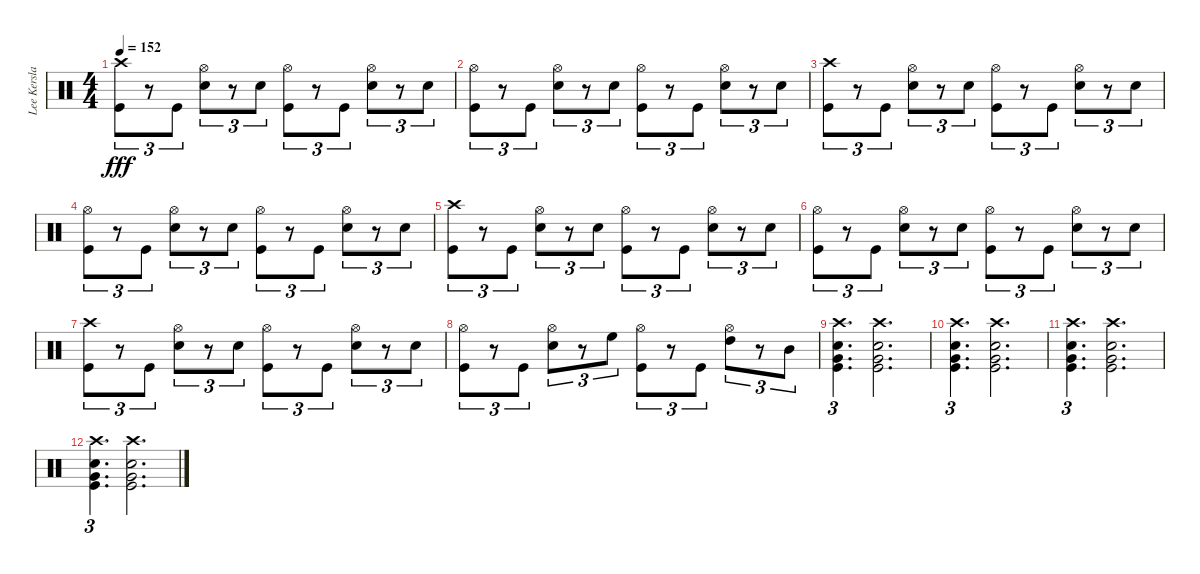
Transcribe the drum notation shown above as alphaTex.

\track ("Lee Kerslake" "Lee Kersla") {instrument percussion}
\staff {score}
\articulation defaults
\ts (4 4)
\tempo 152
\clef neutral
\ks c
("Crash high (hit)" "Kick (hit)").8{tu (3 2) dy fff} r.8{tu (3 2)} "Kick (hit)".8{tu (3 2)} ("Hi-Hat (open)" "Electric Snare (hit)").8{tu (3 2)} r.8{tu (3 2)} "Electric Snare (hit)".8{tu (3 2)} ("Hi-Hat (open)" "Kick (hit)").8{tu (3 2)} r.8{tu (3 2)} "Kick (hit)".8{tu (3 2)} ("Hi-Hat (open)" "Electric Snare (hit)").8{tu (3 2)} r.8{tu (3 2)} "Electric Snare (hit)".8{tu (3 2)} |
("Hi-Hat (open)" "Kick (hit)").8{tu (3 2)} r.8{tu (3 2)} "Kick (hit)".8{tu (3 2)} ("Hi-Hat (open)" "Electric Snare (hit)").8{tu (3 2)} r.8{tu (3 2)} "Electric Snare (hit)".8{tu (3 2)} ("Hi-Hat (open)" "Kick (hit)").8{tu (3 2)} r.8{tu (3 2)} "Kick (hit)".8{tu (3 2)} ("Hi-Hat (open)" "Electric Snare (hit)").8{tu (3 2)} r.8{tu (3 2)} "Electric Snare (hit)".8{tu (3 2)} |
("Crash high (hit)" "Kick (hit)").8{tu (3 2)} r.8{tu (3 2)} "Kick (hit)".8{tu (3 2)} ("Hi-Hat (open)" "Electric Snare (hit)").8{tu (3 2)} r.8{tu (3 2)} "Electric Snare (hit)".8{tu (3 2)} ("Hi-Hat (open)" "Kick (hit)").8{tu (3 2)} r.8{tu (3 2)} "Kick (hit)".8{tu (3 2)} ("Hi-Hat (open)" "Electric Snare (hit)").8{tu (3 2)} r.8{tu (3 2)} "Electric Snare (hit)".8{tu (3 2)} |
("Hi-Hat (open)" "Kick (hit)").8{tu (3 2)} r.8{tu (3 2)} "Kick (hit)".8{tu (3 2)} ("Hi-Hat (open)" "Electric Snare (hit)").8{tu (3 2)} r.8{tu (3 2)} "Electric Snare (hit)".8{tu (3 2)} ("Hi-Hat (open)" "Kick (hit)").8{tu (3 2)} r.8{tu (3 2)} "Kick (hit)".8{tu (3 2)} ("Hi-Hat (open)" "Electric Snare (hit)").8{tu (3 2)} r.8{tu (3 2)} "Electric Snare (hit)".8{tu (3 2)} |
("Crash high (hit)" "Kick (hit)").8{tu (3 2)} r.8{tu (3 2)} "Kick (hit)".8{tu (3 2)} ("Hi-Hat (open)" "Electric Snare (hit)").8{tu (3 2)} r.8{tu (3 2)} "Electric Snare (hit)".8{tu (3 2)} ("Hi-Hat (open)" "Kick (hit)").8{tu (3 2)} r.8{tu (3 2)} "Kick (hit)".8{tu (3 2)} ("Hi-Hat (open)" "Electric Snare (hit)").8{tu (3 2)} r.8{tu (3 2)} "Electric Snare (hit)".8{tu (3 2)} |
("Hi-Hat (open)" "Kick (hit)").8{tu (3 2)} r.8{tu (3 2)} "Kick (hit)".8{tu (3 2)} ("Hi-Hat (open)" "Electric Snare (hit)").8{tu (3 2)} r.8{tu (3 2)} "Electric Snare (hit)".8{tu (3 2)} ("Hi-Hat (open)" "Kick (hit)").8{tu (3 2)} r.8{tu (3 2)} "Kick (hit)".8{tu (3 2)} ("Hi-Hat (open)" "Electric Snare (hit)").8{tu (3 2)} r.8{tu (3 2)} "Electric Snare (hit)".8{tu (3 2)} |
("Crash high (hit)" "Kick (hit)").8{tu (3 2)} r.8{tu (3 2)} "Kick (hit)".8{tu (3 2)} ("Hi-Hat (open)" "Electric Snare (hit)").8{tu (3 2)} r.8{tu (3 2)} "Electric Snare (hit)".8{tu (3 2)} ("Hi-Hat (open)" "Kick (hit)").8{tu (3 2)} r.8{tu (3 2)} "Kick (hit)".8{tu (3 2)} ("Hi-Hat (open)" "Electric Snare (hit)").8{tu (3 2)} r.8{tu (3 2)} "Electric Snare (hit)".8{tu (3 2)} |
("Hi-Hat (open)" "Kick (hit)").8{tu (3 2)} r.8{tu (3 2)} "Kick (hit)".8{tu (3 2)} ("Hi-Hat (open)" "Electric Snare (hit)").8{tu (3 2)} r.8{tu (3 2)} "High Floor Tom (hit)".8{tu (3 2)} ("Hi-Hat (open)" "Kick (hit)").8{tu (3 2)} r.8{tu (3 2)} "Kick (hit)".8{tu (3 2)} ("Hi-Hat (open)" "High Tom (hit)").8{tu (3 2)} r.8{tu (3 2)} "Mid Tom (hit)".8{tu (3 2)} |
("Crash high (hit)" "Electric Snare (hit)" "Kick (hit)" "Very Low Tom (hit)").4{d tu (3 2)} ("Crash high (hit)" "Electric Snare (hit)" "Kick (hit)" "Very Low Tom (hit)").2{d} |
("Crash high (hit)" "Electric Snare (hit)" "Kick (hit)" "Very Low Tom (hit)").4{d tu (3 2)} ("Crash high (hit)" "Electric Snare (hit)" "Kick (hit)" "Very Low Tom (hit)").2{d} |
("Crash high (hit)" "Electric Snare (hit)" "Kick (hit)" "Very Low Tom (hit)").4{d tu (3 2)} ("Crash high (hit)" "Electric Snare (hit)" "Kick (hit)" "Very Low Tom (hit)").2{d} |
("Crash high (hit)" "Electric Snare (hit)" "Kick (hit)" "Very Low Tom (hit)").4{d tu (3 2)} ("Crash high (hit)" "Electric Snare (hit)" "Kick (hit)" "Very Low Tom (hit)").2{d}
